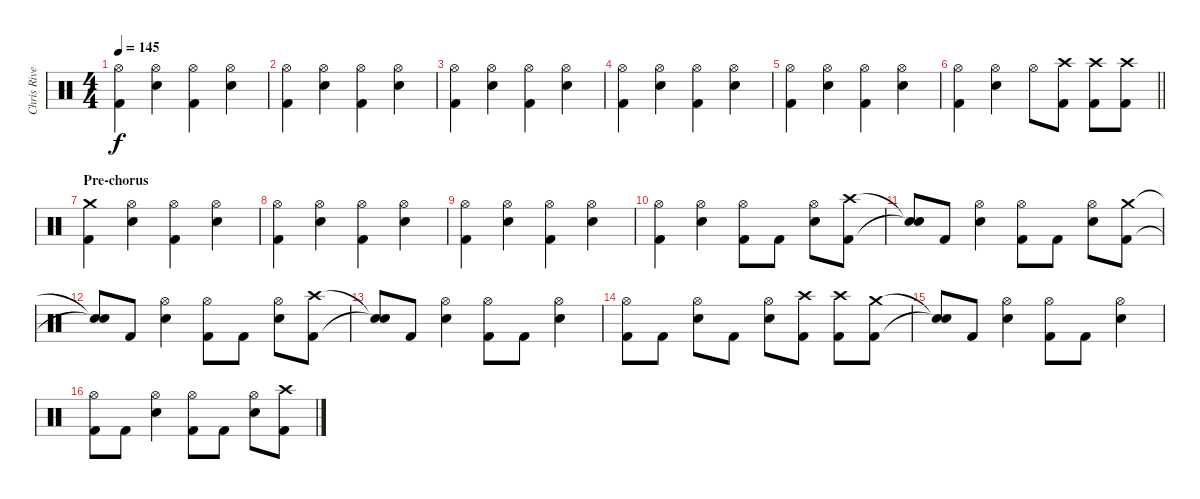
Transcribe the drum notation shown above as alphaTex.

\track ("Chris Rivers" "Chris Rive") {instrument percussion}
\staff {score}
\articulation defaults
\ts (4 4)
\tempo 145
\clef neutral
\ks c
("Hi-Hat (open)" "Kick (hit) 2").4{dy f} ("Hi-Hat (open)" "Electric Snare (hit)").4 ("Hi-Hat (open)" "Kick (hit) 2").4 ("Hi-Hat (open)" "Electric Snare (hit)").4 |
("Hi-Hat (open)" "Kick (hit) 2").4 ("Hi-Hat (open)" "Electric Snare (hit)").4 ("Hi-Hat (open)" "Kick (hit) 2").4 ("Hi-Hat (open)" "Electric Snare (hit)").4 |
("Hi-Hat (open)" "Kick (hit) 2").4 ("Hi-Hat (open)" "Electric Snare (hit)").4 ("Hi-Hat (open)" "Kick (hit) 2").4 ("Hi-Hat (open)" "Electric Snare (hit)").4 |
("Hi-Hat (open)" "Kick (hit) 2").4 ("Hi-Hat (open)" "Electric Snare (hit)").4 ("Hi-Hat (open)" "Kick (hit) 2").4 ("Hi-Hat (open)" "Electric Snare (hit)").4 |
("Hi-Hat (open)" "Kick (hit) 2").4 ("Hi-Hat (open)" "Electric Snare (hit)").4 ("Hi-Hat (open)" "Kick (hit) 2").4 ("Hi-Hat (open)" "Electric Snare (hit)").4 |
\barLineRight lightlight
("Hi-Hat (open)" "Kick (hit) 2").4 ("Hi-Hat (open)" "Electric Snare (hit)").4 "Hi-Hat (open)".8 ("Crash high (hit)" "Kick (hit) 2").8 ("Crash high (hit)" "Kick (hit) 2").8 ("Crash high (hit)" "Kick (hit) 2").8 |
\section ("" "Pre-chorus")
("Crash medium (hit)" "Kick (hit) 2").4 ("Hi-Hat (open)" "Electric Snare (hit)").4 ("Hi-Hat (open)" "Kick (hit) 2").4 ("Hi-Hat (open)" "Electric Snare (hit)").4 |
("Hi-Hat (open)" "Kick (hit) 2").4 ("Hi-Hat (open)" "Electric Snare (hit)").4 ("Hi-Hat (open)" "Kick (hit) 2").4 ("Hi-Hat (open)" "Electric Snare (hit)").4 |
("Hi-Hat (open)" "Kick (hit) 2").4 ("Hi-Hat (open)" "Electric Snare (hit)").4 ("Hi-Hat (open)" "Kick (hit) 2").4 ("Hi-Hat (open)" "Electric Snare (hit)").4 |
("Hi-Hat (open)" "Kick (hit) 2").4 ("Hi-Hat (open)" "Electric Snare (hit)").4 ("Hi-Hat (open)" "Kick (hit) 2").8 "Kick (hit) 2".8 ("Hi-Hat (open)" "Electric Snare (hit)").8 ("Crash high (hit)" "Kick (hit) 2").8 |
("Snare (hit)"{t} "Snare (hit)"{t}).8 "Kick (hit) 2".8 ("Hi-Hat (open)" "Electric Snare (hit)").4 ("Hi-Hat (open)" "Kick (hit) 2").8 "Kick (hit) 2".8 ("Hi-Hat (open)" "Electric Snare (hit)").8 ("Crash medium (hit)" "Kick (hit) 2").8 |
("Snare (hit)"{t} "Snare (hit)"{t}).8 "Kick (hit) 2".8 ("Hi-Hat (open)" "Electric Snare (hit)").4 ("Hi-Hat (open)" "Kick (hit) 2").8 "Kick (hit) 2".8 ("Hi-Hat (open)" "Electric Snare (hit)").8 ("Crash high (hit)" "Kick (hit) 2").8 |
("Snare (hit)"{t} "Snare (hit)"{t}).8 "Kick (hit) 2".8 ("Hi-Hat (open)" "Electric Snare (hit)").4 ("Hi-Hat (open)" "Kick (hit) 2").8 "Kick (hit) 2".8 ("Hi-Hat (open)" "Electric Snare (hit)").4 |
("Hi-Hat (open)" "Kick (hit) 2").8 "Kick (hit) 2".8 ("Hi-Hat (open)" "Electric Snare (hit)").8 "Kick (hit) 2".8 ("Hi-Hat (open)" "Electric Snare (hit)").8 ("Crash high (hit)" "Kick (hit) 2").8 ("Crash high (hit)" "Kick (hit) 2").8 ("Crash medium (hit)" "Kick (hit) 2").8 |
("Snare (hit)"{t} "Snare (hit)"{t}).8 "Kick (hit) 2".8 ("Hi-Hat (open)" "Electric Snare (hit)").4 ("Hi-Hat (open)" "Kick (hit) 2").8 "Kick (hit) 2".8 ("Hi-Hat (open)" "Electric Snare (hit)").4 |
("Hi-Hat (open)" "Kick (hit) 2").8 "Kick (hit) 2".8 ("Hi-Hat (open)" "Electric Snare (hit)").4 ("Hi-Hat (open)" "Kick (hit) 2").8 "Kick (hit) 2".8 ("Hi-Hat (open)" "Electric Snare (hit)").8 ("Crash high (hit)" "Kick (hit) 2").8
